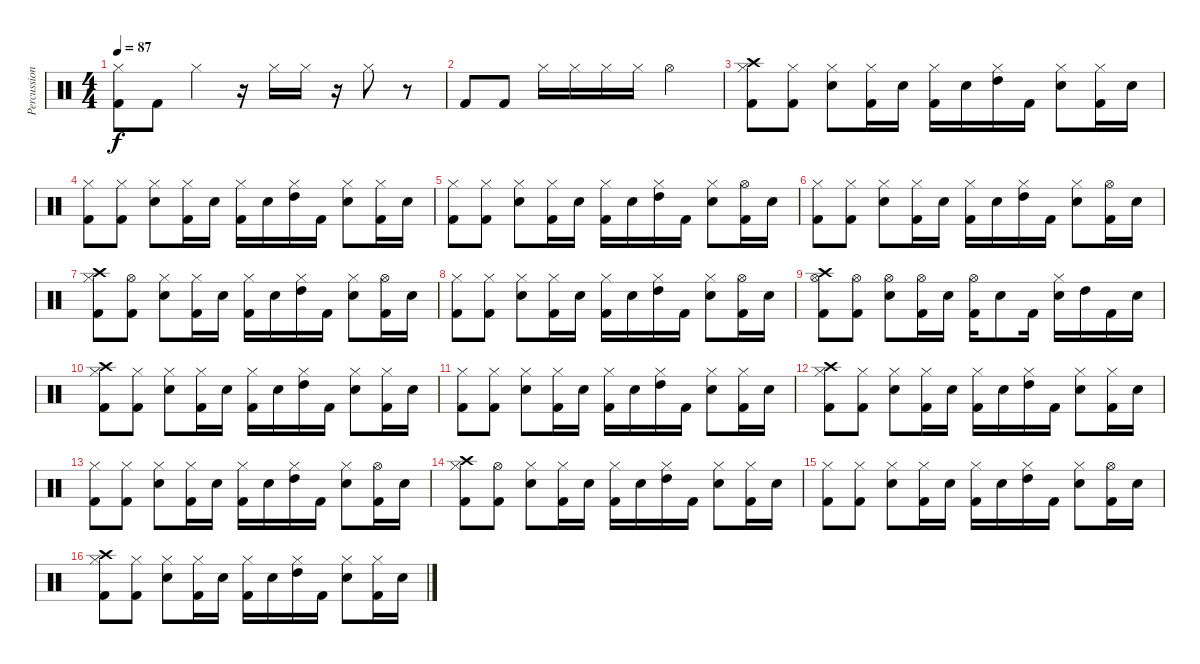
\track ("Percussions" "Percussion") {instrument percussion}
\staff {score}
\articulation defaults
\ts (4 4)
\tempo 87
\clef neutral
\ks c
("Hi-Hat (closed)" "Kick (hit) 2").8{dy f} "Kick (hit) 2".8 "Hi-Hat (closed)".4 r.16 "Hi-Hat (closed)".16 "Hi-Hat (closed)".16 r.16 "Hi-Hat (closed)".8 r.8 |
"Kick (hit) 2".8 "Kick (hit) 2".8 "Hi-Hat (closed)".16 "Hi-Hat (closed)".16 "Hi-Hat (closed)".16 "Hi-Hat (closed)".16 "Hi-Hat (open)".2 |
("Crash high (hit)" "Hi-Hat (closed)" "Kick (hit) 2").8 ("Hi-Hat (closed)" "Kick (hit) 2").8 ("Hi-Hat (closed)" "Electric Snare (hit)").8 ("Hi-Hat (closed)" "Kick (hit) 2").16 "Electric Snare (hit)".16 ("Hi-Hat (closed)" "Kick (hit) 2").16 "Electric Snare (hit)".16 ("Hi-Hat (closed)" "High Tom (hit)").16 "Kick (hit) 2".16 ("Hi-Hat (closed)" "Electric Snare (hit)").8 ("Hi-Hat (closed)" "Kick (hit) 2").16 "Electric Snare (hit)".16 |
("Hi-Hat (closed)" "Kick (hit) 2").8 ("Hi-Hat (closed)" "Kick (hit) 2").8 ("Hi-Hat (closed)" "Electric Snare (hit)").8 ("Hi-Hat (closed)" "Kick (hit) 2").16 "Electric Snare (hit)".16 ("Hi-Hat (closed)" "Kick (hit) 2").16 "Electric Snare (hit)".16 ("Hi-Hat (closed)" "High Tom (hit)").16 "Kick (hit) 2".16 ("Hi-Hat (closed)" "Electric Snare (hit)").8 ("Hi-Hat (closed)" "Kick (hit) 2").16 "Electric Snare (hit)".16 |
("Hi-Hat (closed)" "Kick (hit) 2").8 ("Hi-Hat (closed)" "Kick (hit) 2").8 ("Hi-Hat (closed)" "Electric Snare (hit)").8 ("Hi-Hat (closed)" "Kick (hit) 2").16 "Electric Snare (hit)".16 ("Hi-Hat (closed)" "Kick (hit) 2").16 "Electric Snare (hit)".16 ("Hi-Hat (closed)" "High Tom (hit)").16 "Kick (hit) 2".16 ("Hi-Hat (closed)" "Electric Snare (hit)").8 ("Hi-Hat (open)" "Kick (hit) 2").16 "Electric Snare (hit)".16 |
("Hi-Hat (closed)" "Kick (hit) 2").8 ("Hi-Hat (closed)" "Kick (hit) 2").8 ("Hi-Hat (closed)" "Electric Snare (hit)").8 ("Hi-Hat (closed)" "Kick (hit) 2").16 "Electric Snare (hit)".16 ("Hi-Hat (closed)" "Kick (hit) 2").16 "Electric Snare (hit)".16 ("Hi-Hat (closed)" "High Tom (hit)").16 "Kick (hit) 2".16 ("Hi-Hat (closed)" "Electric Snare (hit)").8 ("Hi-Hat (open)" "Kick (hit) 2").16 "Electric Snare (hit)".16 |
("Crash high (hit)" "Hi-Hat (closed)" "Kick (hit) 2").8 ("Hi-Hat (open)" "Kick (hit) 2").8 ("Hi-Hat (closed)" "Electric Snare (hit)").8 ("Hi-Hat (closed)" "Kick (hit) 2").16 "Electric Snare (hit)".16 ("Hi-Hat (closed)" "Kick (hit) 2").16 "Electric Snare (hit)".16 ("Hi-Hat (closed)" "High Tom (hit)").16 "Kick (hit) 2".16 ("Hi-Hat (closed)" "Electric Snare (hit)").8 ("Hi-Hat (open)" "Kick (hit) 2").16 "Electric Snare (hit)".16 |
("Hi-Hat (closed)" "Kick (hit) 2").8 ("Hi-Hat (closed)" "Kick (hit) 2").8 ("Hi-Hat (closed)" "Electric Snare (hit)").8 ("Hi-Hat (closed)" "Kick (hit) 2").16 "Electric Snare (hit)".16 ("Hi-Hat (closed)" "Kick (hit) 2").16 "Electric Snare (hit)".16 ("Hi-Hat (closed)" "High Tom (hit)").16 "Kick (hit) 2".16 ("Hi-Hat (closed)" "Electric Snare (hit)").8 ("Hi-Hat (open)" "Kick (hit) 2").16 "Electric Snare (hit)".16 |
("Crash high (hit)" "Hi-Hat (open)" "Kick (hit) 2").8 ("Hi-Hat (open)" "Kick (hit) 2").8 ("Hi-Hat (open)" "Electric Snare (hit)").8 ("Hi-Hat (open)" "Kick (hit) 2").16 "Electric Snare (hit)".16 ("Hi-Hat (open)" "Kick (hit) 2").16 "Electric Snare (hit)".8 "Kick (hit) 2".16 ("Hi-Hat (closed)" "Electric Snare (hit)").16 "High Tom (hit)".16 "Kick (hit) 2".16 "Electric Snare (hit)".16 |
("Crash high (hit)" "Hi-Hat (closed)" "Kick (hit) 2").8 ("Hi-Hat (closed)" "Kick (hit) 2").8 ("Hi-Hat (closed)" "Electric Snare (hit)").8 ("Hi-Hat (closed)" "Kick (hit) 2").16 "Electric Snare (hit)".16 ("Hi-Hat (closed)" "Kick (hit) 2").16 "Electric Snare (hit)".16 ("Hi-Hat (closed)" "High Tom (hit)").16 "Kick (hit) 2".16 ("Hi-Hat (closed)" "Electric Snare (hit)").8 ("Hi-Hat (closed)" "Kick (hit) 2").16 "Electric Snare (hit)".16 |
("Hi-Hat (closed)" "Kick (hit) 2").8 ("Hi-Hat (closed)" "Kick (hit) 2").8 ("Hi-Hat (closed)" "Electric Snare (hit)").8 ("Hi-Hat (closed)" "Kick (hit) 2").16 "Electric Snare (hit)".16 ("Hi-Hat (closed)" "Kick (hit) 2").16 "Electric Snare (hit)".16 ("Hi-Hat (closed)" "High Tom (hit)").16 "Kick (hit) 2".16 ("Hi-Hat (closed)" "Electric Snare (hit)").8 ("Hi-Hat (closed)" "Kick (hit) 2").16 "Electric Snare (hit)".16 |
("Crash high (hit)" "Hi-Hat (closed)" "Kick (hit) 2").8 ("Hi-Hat (closed)" "Kick (hit) 2").8 ("Hi-Hat (closed)" "Electric Snare (hit)").8 ("Hi-Hat (closed)" "Kick (hit) 2").16 "Electric Snare (hit)".16 ("Hi-Hat (closed)" "Kick (hit) 2").16 "Electric Snare (hit)".16 ("Hi-Hat (closed)" "High Tom (hit)").16 "Kick (hit) 2".16 ("Hi-Hat (closed)" "Electric Snare (hit)").8 ("Hi-Hat (closed)" "Kick (hit) 2").16 "Electric Snare (hit)".16 |
("Hi-Hat (closed)" "Kick (hit) 2").8 ("Hi-Hat (closed)" "Kick (hit) 2").8 ("Hi-Hat (closed)" "Electric Snare (hit)").8 ("Hi-Hat (closed)" "Kick (hit) 2").16 "Electric Snare (hit)".16 ("Hi-Hat (closed)" "Kick (hit) 2").16 "Electric Snare (hit)".16 ("Hi-Hat (closed)" "High Tom (hit)").16 "Kick (hit) 2".16 ("Hi-Hat (closed)" "Electric Snare (hit)").8 ("Hi-Hat (open)" "Kick (hit) 2").16 "Electric Snare (hit)".16 |
("Crash high (hit)" "Hi-Hat (closed)" "Kick (hit) 2").8 ("Hi-Hat (open)" "Kick (hit) 2").8 ("Hi-Hat (closed)" "Electric Snare (hit)").8 ("Hi-Hat (closed)" "Kick (hit) 2").16 "Electric Snare (hit)".16 ("Hi-Hat (closed)" "Kick (hit) 2").16 "Electric Snare (hit)".16 ("Hi-Hat (closed)" "High Tom (hit)").16 "Kick (hit) 2".16 ("Hi-Hat (closed)" "Electric Snare (hit)").8 ("Hi-Hat (closed)" "Kick (hit) 2").16 "Electric Snare (hit)".16 |
("Hi-Hat (closed)" "Kick (hit) 2").8 ("Hi-Hat (closed)" "Kick (hit) 2").8 ("Hi-Hat (closed)" "Electric Snare (hit)").8 ("Hi-Hat (closed)" "Kick (hit) 2").16 "Electric Snare (hit)".16 ("Hi-Hat (closed)" "Kick (hit) 2").16 "Electric Snare (hit)".16 ("Hi-Hat (closed)" "High Tom (hit)").16 "Kick (hit) 2".16 ("Hi-Hat (closed)" "Electric Snare (hit)").8 ("Hi-Hat (open)" "Kick (hit) 2").16 "Electric Snare (hit)".16 |
("Crash high (hit)" "Hi-Hat (closed)" "Kick (hit) 2").8 ("Hi-Hat (closed)" "Kick (hit) 2").8 ("Hi-Hat (closed)" "Electric Snare (hit)").8 ("Hi-Hat (closed)" "Kick (hit) 2").16 "Electric Snare (hit)".16 ("Hi-Hat (closed)" "Kick (hit) 2").16 "Electric Snare (hit)".16 ("Hi-Hat (closed)" "High Tom (hit)").16 "Kick (hit) 2".16 ("Hi-Hat (closed)" "Electric Snare (hit)").8 ("Hi-Hat (closed)" "Kick (hit) 2").16 "Electric Snare (hit)".16
